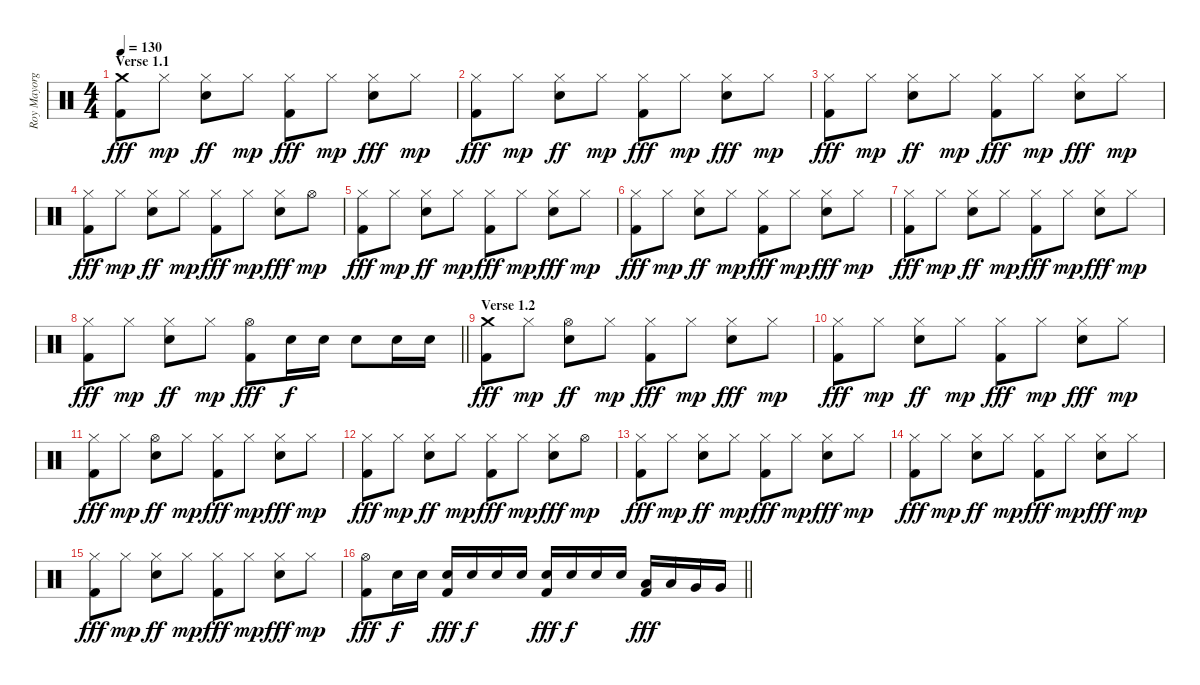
\track ("Roy Mayorga" "Roy Mayorg") {instrument percussion}
\staff {score}
\articulation defaults
\ts (4 4)
\section ("" "Verse 1.1")
\tempo 130
\clef neutral
\ks c
("Crash medium (hit)" "Kick (hit) 2").8{dy fff} "Hi-Hat (closed)".8{dy mp} ("Hi-Hat (closed)" "Electric Snare (hit)").8{dy ff} "Hi-Hat (closed)".8{dy mp} ("Hi-Hat (closed)" "Kick (hit) 2").8{dy fff} "Hi-Hat (closed)".8{dy mp} ("Hi-Hat (closed)" "Electric Snare (hit)").8{dy fff} "Hi-Hat (closed)".8{dy mp} |
("Hi-Hat (closed)" "Kick (hit) 2").8{dy fff} "Hi-Hat (closed)".8{dy mp} ("Hi-Hat (closed)" "Electric Snare (hit)").8{dy ff} "Hi-Hat (closed)".8{dy mp} ("Hi-Hat (closed)" "Kick (hit) 2").8{dy fff} "Hi-Hat (closed)".8{dy mp} ("Hi-Hat (closed)" "Electric Snare (hit)").8{dy fff} "Hi-Hat (closed)".8{dy mp} |
("Hi-Hat (closed)" "Kick (hit) 2").8{dy fff} "Hi-Hat (closed)".8{dy mp} ("Hi-Hat (closed)" "Electric Snare (hit)").8{dy ff} "Hi-Hat (closed)".8{dy mp} ("Hi-Hat (closed)" "Kick (hit) 2").8{dy fff} "Hi-Hat (closed)".8{dy mp} ("Hi-Hat (closed)" "Electric Snare (hit)").8{dy fff} "Hi-Hat (closed)".8{dy mp} |
("Hi-Hat (closed)" "Kick (hit) 2").8{dy fff} "Hi-Hat (closed)".8{dy mp} ("Hi-Hat (closed)" "Electric Snare (hit)").8{dy ff} "Hi-Hat (closed)".8{dy mp} ("Hi-Hat (closed)" "Kick (hit) 2").8{dy fff} "Hi-Hat (closed)".8{dy mp} ("Hi-Hat (closed)" "Electric Snare (hit)").8{dy fff} "Hi-Hat (open)".8{dy mp} |
("Hi-Hat (closed)" "Kick (hit) 2").8{dy fff} "Hi-Hat (closed)".8{dy mp} ("Hi-Hat (closed)" "Electric Snare (hit)").8{dy ff} "Hi-Hat (closed)".8{dy mp} ("Hi-Hat (closed)" "Kick (hit) 2").8{dy fff} "Hi-Hat (closed)".8{dy mp} ("Hi-Hat (closed)" "Electric Snare (hit)").8{dy fff} "Hi-Hat (closed)".8{dy mp} |
("Hi-Hat (closed)" "Kick (hit) 2").8{dy fff} "Hi-Hat (closed)".8{dy mp} ("Hi-Hat (closed)" "Electric Snare (hit)").8{dy ff} "Hi-Hat (closed)".8{dy mp} ("Hi-Hat (closed)" "Kick (hit) 2").8{dy fff} "Hi-Hat (closed)".8{dy mp} ("Hi-Hat (closed)" "Electric Snare (hit)").8{dy fff} "Hi-Hat (closed)".8{dy mp} |
("Hi-Hat (closed)" "Kick (hit) 2").8{dy fff} "Hi-Hat (closed)".8{dy mp} ("Hi-Hat (closed)" "Electric Snare (hit)").8{dy ff} "Hi-Hat (closed)".8{dy mp} ("Hi-Hat (closed)" "Kick (hit) 2").8{dy fff} "Hi-Hat (closed)".8{dy mp} ("Hi-Hat (closed)" "Electric Snare (hit)").8{dy fff} "Hi-Hat (closed)".8{dy mp} |
\barLineRight lightlight
("Hi-Hat (closed)" "Kick (hit) 2").8{dy fff} "Hi-Hat (closed)".8{dy mp} ("Hi-Hat (closed)" "Electric Snare (hit)").8{dy ff} "Hi-Hat (closed)".8{dy mp} ("Hi-Hat (open)" "Kick (hit) 2").8{dy fff} "Electric Snare (hit)".16{dy f} "Electric Snare (hit)".16 "Electric Snare (hit)".8 "Electric Snare (hit)".16 "Electric Snare (hit)".16 |
\section ("" "Verse 1.2")
("Crash medium (hit)" "Kick (hit) 2").8{dy fff} "Hi-Hat (closed)".8{dy mp} ("Hi-Hat (open)" "Electric Snare (hit)").8{dy ff} "Hi-Hat (closed)".8{dy mp} ("Hi-Hat (closed)" "Kick (hit) 2").8{dy fff} "Hi-Hat (closed)".8{dy mp} ("Hi-Hat (closed)" "Electric Snare (hit)").8{dy fff} "Hi-Hat (closed)".8{dy mp} |
("Hi-Hat (closed)" "Kick (hit) 2").8{dy fff} "Hi-Hat (closed)".8{dy mp} ("Hi-Hat (closed)" "Electric Snare (hit)").8{dy ff} "Hi-Hat (closed)".8{dy mp} ("Hi-Hat (closed)" "Kick (hit) 2").8{dy fff} "Hi-Hat (closed)".8{dy mp} ("Hi-Hat (closed)" "Electric Snare (hit)").8{dy fff} "Hi-Hat (closed)".8{dy mp} |
("Hi-Hat (closed)" "Kick (hit) 2").8{dy fff} "Hi-Hat (closed)".8{dy mp} ("Hi-Hat (open)" "Electric Snare (hit)").8{dy ff} "Hi-Hat (closed)".8{dy mp} ("Hi-Hat (closed)" "Kick (hit) 2").8{dy fff} "Hi-Hat (closed)".8{dy mp} ("Hi-Hat (closed)" "Electric Snare (hit)").8{dy fff} "Hi-Hat (closed)".8{dy mp} |
("Hi-Hat (closed)" "Kick (hit) 2").8{dy fff} "Hi-Hat (closed)".8{dy mp} ("Hi-Hat (closed)" "Electric Snare (hit)").8{dy ff} "Hi-Hat (closed)".8{dy mp} ("Hi-Hat (closed)" "Kick (hit) 2").8{dy fff} "Hi-Hat (closed)".8{dy mp} ("Hi-Hat (closed)" "Electric Snare (hit)").8{dy fff} "Hi-Hat (open)".8{dy mp} |
("Hi-Hat (closed)" "Kick (hit) 2").8{dy fff} "Hi-Hat (closed)".8{dy mp} ("Hi-Hat (closed)" "Electric Snare (hit)").8{dy ff} "Hi-Hat (closed)".8{dy mp} ("Hi-Hat (closed)" "Kick (hit) 2").8{dy fff} "Hi-Hat (closed)".8{dy mp} ("Hi-Hat (closed)" "Electric Snare (hit)").8{dy fff} "Hi-Hat (closed)".8{dy mp} |
("Hi-Hat (closed)" "Kick (hit) 2").8{dy fff} "Hi-Hat (closed)".8{dy mp} ("Hi-Hat (closed)" "Electric Snare (hit)").8{dy ff} "Hi-Hat (closed)".8{dy mp} ("Hi-Hat (closed)" "Kick (hit) 2").8{dy fff} "Hi-Hat (closed)".8{dy mp} ("Hi-Hat (closed)" "Electric Snare (hit)").8{dy fff} "Hi-Hat (closed)".8{dy mp} |
("Hi-Hat (closed)" "Kick (hit) 2").8{dy fff} "Hi-Hat (closed)".8{dy mp} ("Hi-Hat (closed)" "Electric Snare (hit)").8{dy ff} "Hi-Hat (closed)".8{dy mp} ("Hi-Hat (closed)" "Kick (hit) 2").8{dy fff} "Hi-Hat (closed)".8{dy mp} ("Hi-Hat (closed)" "Electric Snare (hit)").8{dy fff} "Hi-Hat (closed)".8{dy mp} |
\barLineRight lightlight
("Hi-Hat (open)" "Kick (hit) 2").8{dy fff} "Electric Snare (hit)".16{dy f} "Electric Snare (hit)".16 ("Electric Snare (hit)" "Kick (hit) 2").16{dy fff} "Electric Snare (hit)".16{dy f} "Electric Snare (hit)".16 "Electric Snare (hit)".16 ("Electric Snare (hit)" "Kick (hit) 2").16{dy fff} "Electric Snare (hit)".16{dy f} "Electric Snare (hit)".16 "Electric Snare (hit)".16 ("Low Tom (hit)" "Kick (hit) 2").16{dy fff} "Low Tom (hit)".16 "Very Low Tom (hit)".16 "Very Low Tom (hit)".16
